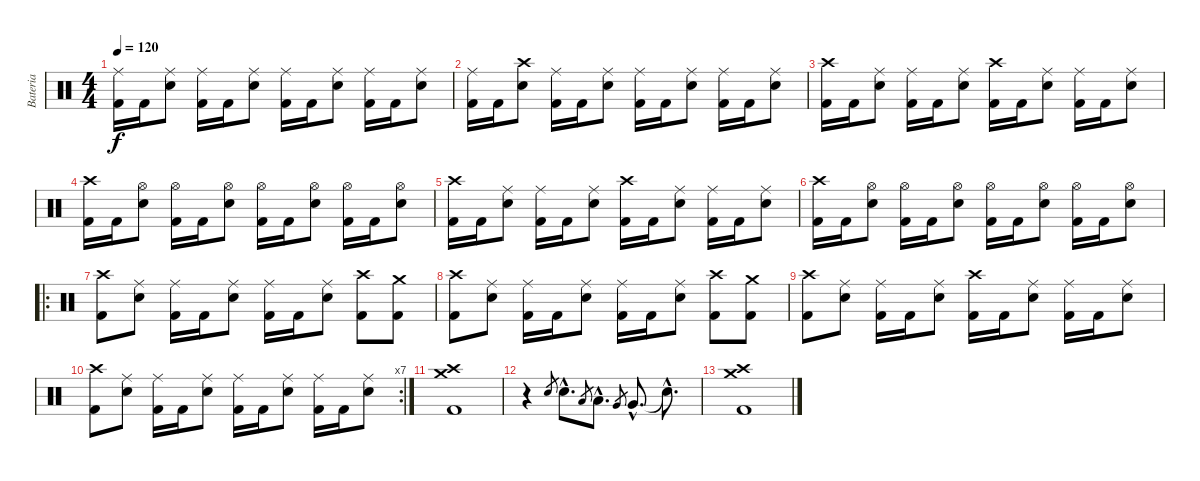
\track ("Bateria" "Bateria") {instrument percussion}
\staff {score}
\articulation defaults
\ts (4 4)
\tempo 120
\clef neutral
\ks c
("Ride (middle)" "Kick (hit) 2").16{dy f} "Kick (hit) 2".16 ("Ride (middle)" "Snare (hit) 2").8 ("Ride (middle)" "Kick (hit) 2").16 "Kick (hit) 2".16 ("Ride (middle)" "Snare (hit) 2").8 ("Ride (middle)" "Kick (hit) 2").16 "Kick (hit) 2".16 ("Ride (middle)" "Snare (hit) 2").8 ("Ride (middle)" "Kick (hit) 2").16 "Kick (hit) 2".16 ("Ride (middle)" "Snare (hit) 2").8 |
("Ride (middle)" "Kick (hit) 2").16 "Kick (hit) 2".16 ("Crash high (hit)" "Snare (hit) 2").8 ("Ride (middle)" "Kick (hit) 2").16 "Kick (hit) 2".16 ("Ride (middle)" "Snare (hit) 2").8 ("Ride (middle)" "Kick (hit) 2").16 "Kick (hit) 2".16 ("Ride (middle)" "Snare (hit) 2").8 ("Ride (middle)" "Kick (hit) 2").16 "Kick (hit) 2".16 ("Ride (middle)" "Snare (hit) 2").8 |
("Crash high (hit)" "Kick (hit) 2").16 "Kick (hit) 2".16 ("Ride (middle)" "Snare (hit) 2").8 ("Ride (middle)" "Kick (hit) 2").16 "Kick (hit) 2".16 ("Ride (middle)" "Snare (hit) 2").8 ("Crash high (hit)" "Kick (hit) 2").16 "Kick (hit) 2".16 ("Ride (middle)" "Snare (hit) 2").8 ("Ride (middle)" "Kick (hit) 2").16 "Kick (hit) 2".16 ("Ride (middle)" "Snare (hit) 2").8 |
("Crash high (hit)" "Kick (hit) 2").16 "Kick (hit) 2".16 ("Hi-Hat (open)" "Snare (hit) 2").8 ("Hi-Hat (open)" "Kick (hit) 2").16 "Kick (hit) 2".16 ("Hi-Hat (open)" "Snare (hit) 2").8 ("Hi-Hat (open)" "Kick (hit) 2").16 "Kick (hit) 2".16 ("Hi-Hat (open)" "Snare (hit) 2").8 ("Hi-Hat (open)" "Kick (hit) 2").16 "Kick (hit) 2".16 ("Hi-Hat (open)" "Snare (hit) 2").8 |
("Crash high (hit)" "Kick (hit) 2").16 "Kick (hit) 2".16 ("Ride (middle)" "Snare (hit) 2").8 ("Ride (middle)" "Kick (hit) 2").16 "Kick (hit) 2".16 ("Ride (middle)" "Snare (hit) 2").8 ("Crash high (hit)" "Kick (hit) 2").16 "Kick (hit) 2".16 ("Ride (middle)" "Snare (hit) 2").8 ("Ride (middle)" "Kick (hit) 2").16 "Kick (hit) 2".16 ("Ride (middle)" "Snare (hit) 2").8 |
("Crash high (hit)" "Kick (hit) 2").16 "Kick (hit) 2".16 ("Hi-Hat (open)" "Snare (hit) 2").8 ("Hi-Hat (open)" "Kick (hit) 2").16 "Kick (hit) 2".16 ("Hi-Hat (open)" "Snare (hit) 2").8 ("Hi-Hat (open)" "Kick (hit) 2").16 "Kick (hit) 2".16 ("Hi-Hat (open)" "Snare (hit) 2").8 ("Hi-Hat (open)" "Kick (hit) 2").16 "Kick (hit) 2".16 ("Hi-Hat (open)" "Snare (hit) 2").8 |
\ro
("Crash high (hit)" "Kick (hit) 2").8 ("Ride (middle)" "Snare (hit) 2").8 ("Ride (middle)" "Kick (hit) 2").16 "Kick (hit) 2".16 ("Ride (middle)" "Snare (hit) 2").8 ("Ride (middle)" "Kick (hit) 2").16 "Kick (hit) 2".16 ("Ride (middle)" "Snare (hit) 2").8 ("Crash high (hit)" "Kick (hit) 2").8 ("Crash medium (hit)" "Kick (hit) 2").8 |
("Crash high (hit)" "Kick (hit) 2").8 ("Ride (middle)" "Snare (hit) 2").8 ("Ride (middle)" "Kick (hit) 2").16 "Kick (hit) 2".16 ("Ride (middle)" "Snare (hit) 2").8 ("Ride (middle)" "Kick (hit) 2").16 "Kick (hit) 2".16 ("Ride (middle)" "Snare (hit) 2").8 ("Crash high (hit)" "Kick (hit) 2").8 ("Crash medium (hit)" "Kick (hit) 2").8 |
("Crash high (hit)" "Kick (hit) 2").8 ("Ride (middle)" "Snare (hit) 2").8 ("Ride (middle)" "Kick (hit) 2").16 "Kick (hit) 2".16 ("Ride (middle)" "Snare (hit) 2").8 ("Crash high (hit)" "Kick (hit) 2").16 "Kick (hit) 2".16 ("Ride (middle)" "Snare (hit) 2").8 ("Ride (middle)" "Kick (hit) 2").16 "Kick (hit) 2".16 ("Ride (middle)" "Snare (hit) 2").8 |
\rc 7
("Crash high (hit)" "Kick (hit) 2").8 ("Ride (middle)" "Snare (hit) 2").8 ("Ride (middle)" "Kick (hit) 2").16 "Kick (hit) 2".16 ("Ride (middle)" "Snare (hit) 2").8 ("Ride (middle)" "Kick (hit) 2").16 "Kick (hit) 2".16 ("Ride (middle)" "Snare (hit) 2").8 ("Ride (middle)" "Kick (hit) 2").16 "Kick (hit) 2".16 ("Ride (middle)" "Snare (hit) 2").8 |
("Crash high (hit)" "Crash medium (hit)" "Kick (hit) 2").1 |
r.4 "Snare (hit) 2".8{gr} "Snare (hit) 2"{hac}.8{d} "Low Tom (hit)".8{gr} "Low Tom (hit)"{hac}.8{d} "Very Low Tom (hit)".8{gr} "Very Low Tom (hit)"{hac}.8{d} "Snare (hit)"{hac t}.8{d} |
("Crash high (hit)" "Crash medium (hit)" "Kick (hit) 2").1
